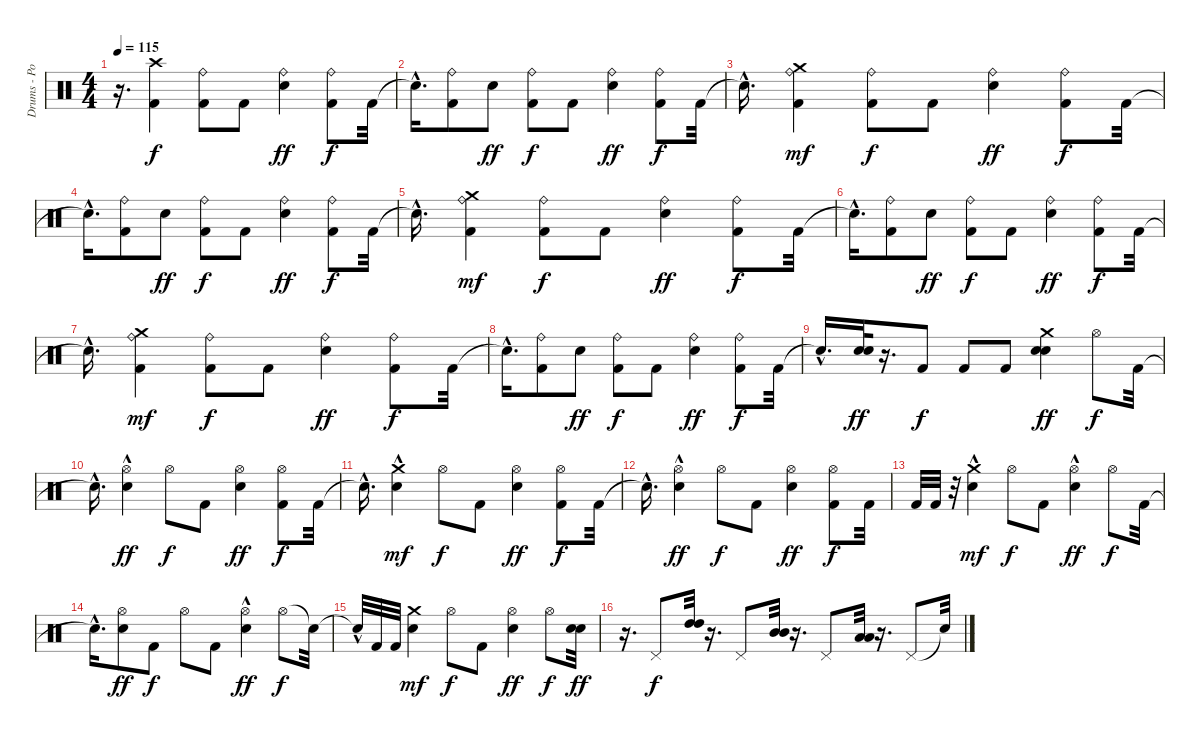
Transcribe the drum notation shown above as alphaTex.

\track ("Drums - Portnoy" "Drums - Po") {instrument percussion}
\staff {score}
\articulation defaults
\ts (4 4)
\tempo 115
\clef neutral
\ks c
r.16{d dy ff} ("Kick (hit) 2" "Crash high (hit)").4{dy f} ("Kick (hit) 2" "Ride (bell)").8 "Kick (hit) 2".8 ("Ride (bell)" "Electric Snare (hit)").4{dy ff} ("Kick (hit) 2" "Ride (bell)").8{dy f} "Kick (hit) 2".32 |
"Snare (hit)"{hac t}.16{d} ("Kick (hit) 2" "Ride (bell)").8 "Electric Snare (hit)".8{dy ff} ("Kick (hit) 2" "Ride (bell)").8{dy f} "Kick (hit) 2".8 ("Ride (bell)" "Electric Snare (hit)").4{dy ff} ("Kick (hit) 2" "Ride (bell)").8{dy f} "Kick (hit) 2".32 |
"Snare (hit)"{hac t}.16{d} ("Ride (bell)" "Kick (hit) 2" "Crash medium (hit)").4{dy mf} ("Kick (hit) 2" "Ride (bell)").8{dy f} "Kick (hit) 2".8 ("Ride (bell)" "Electric Snare (hit)").4{dy ff} ("Kick (hit) 2" "Ride (bell)").8{dy f} "Kick (hit) 2".32 |
"Snare (hit)"{hac t}.16{d} ("Kick (hit) 2" "Ride (bell)").8 "Electric Snare (hit)".8{dy ff} ("Kick (hit) 2" "Ride (bell)").8{dy f} "Kick (hit) 2".8 ("Ride (bell)" "Electric Snare (hit)").4{dy ff} ("Kick (hit) 2" "Ride (bell)").8{dy f} "Kick (hit) 2".32 |
"Snare (hit)"{hac t}.16{d} ("Ride (bell)" "Crash medium (hit)" "Kick (hit) 2").4{dy mf} ("Kick (hit) 2" "Ride (bell)").8{dy f} "Kick (hit) 2".8 ("Ride (bell)" "Electric Snare (hit)").4{dy ff} ("Kick (hit) 2" "Ride (bell)").8{dy f} "Kick (hit) 2".32 |
"Snare (hit)"{hac t}.16{d} ("Kick (hit) 2" "Ride (bell)").8 "Electric Snare (hit)".8{dy ff} ("Kick (hit) 2" "Ride (bell)").8{dy f} "Kick (hit) 2".8 ("Ride (bell)" "Electric Snare (hit)").4{dy ff} ("Kick (hit) 2" "Ride (bell)").8{dy f} "Kick (hit) 2".32 |
"Snare (hit)"{hac t}.16{d} ("Ride (bell)" "Crash medium (hit)" "Kick (hit) 2").4{dy mf} ("Kick (hit) 2" "Ride (bell)").8{dy f} "Kick (hit) 2".8 ("Ride (bell)" "Electric Snare (hit)").4{dy ff} ("Kick (hit) 2" "Ride (bell)").8{dy f} "Kick (hit) 2".32 |
"Snare (hit)"{hac t}.16{d} ("Kick (hit) 2" "Ride (bell)").8 "Electric Snare (hit)".8{dy ff} ("Kick (hit) 2" "Ride (bell)").8{dy f} "Kick (hit) 2".8 ("Ride (bell)" "Electric Snare (hit)").4{dy ff} ("Kick (hit) 2" "Ride (bell)").8{dy f} "Kick (hit) 2".32 |
"Snare (hit)"{hac t}.16{d} ("Electric Snare (hit)" "Electric Snare (hit)").32{dy ff} r.16{d} "Kick (hit) 2".8{dy f} "Kick (hit) 2".8 "Kick (hit) 2".8 ("Electric Snare (hit)" "Crash medium (hit)" "Electric Snare (hit)").4{dy ff} "Hi-Hat (open)".8{dy f} "Kick (hit) 2".32 |
"Snare (hit)"{hac t}.16{d} ("Hi-Hat (open)" "Electric Snare (hit)"{hac}).4{dy ff} "Hi-Hat (open)".8{dy f} "Kick (hit) 2".8 ("Hi-Hat (open)" "Electric Snare (hit)").4{dy ff} ("Kick (hit) 2" "Hi-Hat (open)").8{dy f} "Kick (hit) 2".32 |
"Snare (hit)"{hac t}.16{d} ("Electric Snare (hit)"{hac} "Crash medium (hit)").4{dy mf} "Hi-Hat (open)".8{dy f} "Kick (hit) 2".8 ("Hi-Hat (open)" "Electric Snare (hit)").4{dy ff} ("Kick (hit) 2" "Hi-Hat (open)").8{dy f} "Kick (hit) 2".32 |
"Snare (hit)"{hac t}.16{d} ("Hi-Hat (open)" "Electric Snare (hit)"{hac}).4{dy ff} "Hi-Hat (open)".8{dy f} "Kick (hit) 2".8 ("Hi-Hat (open)" "Electric Snare (hit)").4{dy ff} ("Kick (hit) 2" "Hi-Hat (open)").8{dy f} "Kick (hit) 2".32 |
"Kick (hit) 2".32 "Kick (hit) 2".32 r.32 ("Electric Snare (hit)"{hac} "Crash medium (hit)").4{dy mf} "Hi-Hat (open)".8{dy f} "Kick (hit) 2".8 ("Hi-Hat (open)" "Electric Snare (hit)"{hac}).4{dy ff} "Hi-Hat (open)".8{dy f} "Kick (hit) 2".32 |
"Snare (hit)"{hac t}.16{d} ("Hi-Hat (open)" "Electric Snare (hit)").8{dy ff} "Kick (hit) 2".8{dy f} "Hi-Hat (open)".8 "Kick (hit) 2".8 ("Hi-Hat (open)" "Electric Snare (hit)"{hac}).4{dy ff} "Hi-Hat (open)".8{dy f} "Snare (hit)"{t}.32 |
"Snare (hit)"{hac t}.32 "Kick (hit) 2".32 "Kick (hit) 2".32 ("Electric Snare (hit)" "Crash medium (hit)").4{dy mf} "Hi-Hat (open)".8{dy f} "Kick (hit) 2".8 ("Hi-Hat (open)" "Electric Snare (hit)").4{dy ff} "Hi-Hat (open)".8{dy f} ("Electric Snare (hit)" "Electric Snare (hit)").32{dy ff} |
r.16{d} "Pedal Hi-Hat (hit)".8{dy f} ("High Tom (hit)" "High Tom (hit)").32 r.16{d} "Pedal Hi-Hat (hit)".8 ("Mid Tom (hit)" "Mid Tom (hit)").32 r.16{d} "Pedal Hi-Hat (hit)".8 ("Low Tom (hit)" "Low Tom (hit)").32 r.16{d} "Pedal Hi-Hat (hit)".8 "Snare (hit)"{t}.32
